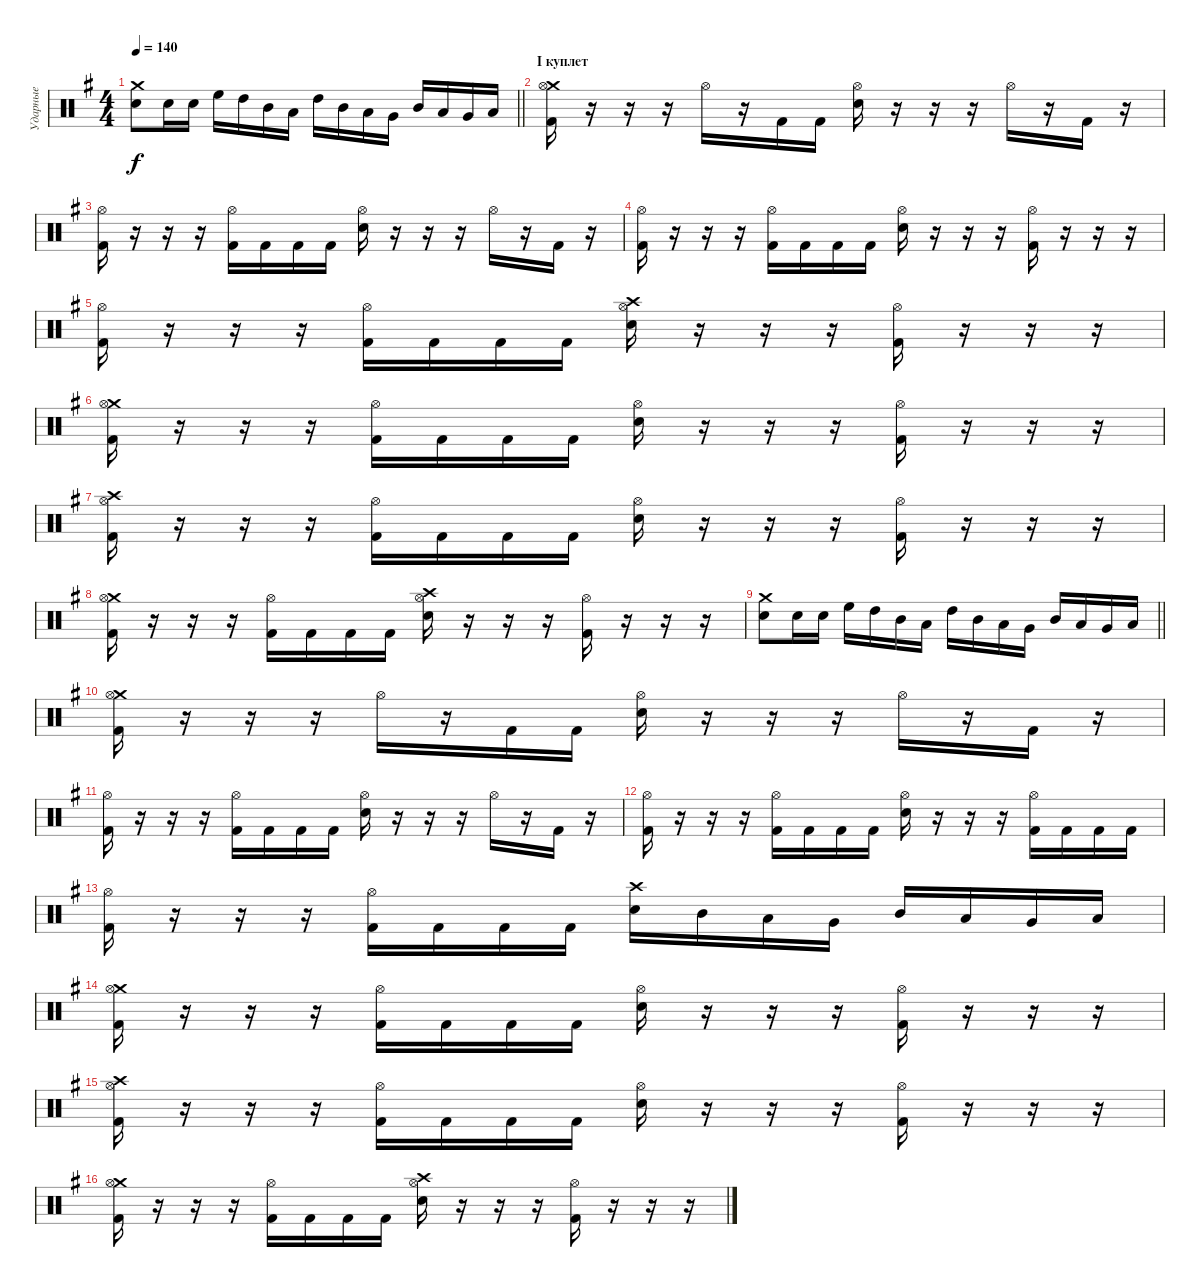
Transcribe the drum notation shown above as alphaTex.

\track ("Ударные" "Ударные") {instrument percussion}
\staff {score}
\articulation defaults
\ts (4 4)
\tempo 140
\clef neutral
\barLineRight lightlight
\ks eminor
("Crash medium (hit)" "Electric Snare (hit)").8{dy f} "Electric Snare (hit)".16 "Electric Snare (hit)".16 "High Floor Tom (hit)".16 "High Tom (hit)".16 "Mid Tom (hit)".16 "Low Tom (hit)".16 "High Tom (hit)".16 "Mid Tom (hit)".16 "Low Tom (hit)".16 "Very Low Tom (hit)".16 "Mid Tom (hit)".16 "Low Tom (hit)".16 "Very Low Tom (hit)".16 "Low Floor Tom (hit)".16 |
\section ("" "I куплет")
("Crash medium (hit)" "Kick (hit) 2" "Hi-Hat (open)").16 r.16 r.16 r.16 "Hi-Hat (open)".16 r.16 "Kick (hit) 2".16 "Kick (hit) 2".16 ("Electric Snare (hit)" "Hi-Hat (open)").16 r.16 r.16 r.16 "Hi-Hat (open)".16 r.16 "Kick (hit) 2".16 r.16 |
("Kick (hit) 2" "Hi-Hat (open)").16 r.16 r.16 r.16 ("Kick (hit) 2" "Hi-Hat (open)").16 "Kick (hit) 2".16 "Kick (hit) 2".16 "Kick (hit) 2".16 ("Electric Snare (hit)" "Hi-Hat (open)").16 r.16 r.16 r.16 "Hi-Hat (open)".16 r.16 "Kick (hit) 2".16 r.16 |
("Kick (hit) 2" "Hi-Hat (open)").16 r.16 r.16 r.16 ("Kick (hit) 2" "Hi-Hat (open)").16 "Kick (hit) 2".16 "Kick (hit) 2".16 "Kick (hit) 2".16 ("Electric Snare (hit)" "Hi-Hat (open)").16 r.16 r.16 r.16 ("Kick (hit) 2" "Hi-Hat (open)").16 r.16 r.16 r.16 |
("Kick (hit) 2" "Hi-Hat (open)").16 r.16 r.16 r.16 ("Kick (hit) 2" "Hi-Hat (open)").16 "Kick (hit) 2".16 "Kick (hit) 2".16 "Kick (hit) 2".16 ("Crash high (hit)" "Electric Snare (hit)" "Hi-Hat (open)").16 r.16 r.16 r.16 ("Kick (hit) 2" "Hi-Hat (open)").16 r.16 r.16 r.16 |
("Crash medium (hit)" "Kick (hit) 2" "Hi-Hat (open)").16 r.16 r.16 r.16 ("Kick (hit) 2" "Hi-Hat (open)").16 "Kick (hit) 2".16 "Kick (hit) 2".16 "Kick (hit) 2".16 ("Electric Snare (hit)" "Hi-Hat (open)").16 r.16 r.16 r.16 ("Kick (hit) 2" "Hi-Hat (open)").16 r.16 r.16 r.16 |
("Crash high (hit)" "Kick (hit) 2" "Hi-Hat (open)").16 r.16 r.16 r.16 ("Kick (hit) 2" "Hi-Hat (open)").16 "Kick (hit) 2".16 "Kick (hit) 2".16 "Kick (hit) 2".16 ("Electric Snare (hit)" "Hi-Hat (open)").16 r.16 r.16 r.16 ("Kick (hit) 2" "Hi-Hat (open)").16 r.16 r.16 r.16 |
("Crash medium (hit)" "Kick (hit) 2" "Hi-Hat (open)").16 r.16 r.16 r.16 ("Kick (hit) 2" "Hi-Hat (open)").16 "Kick (hit) 2".16 "Kick (hit) 2".16 "Kick (hit) 2".16 ("Crash high (hit)" "Electric Snare (hit)" "Hi-Hat (open)").16 r.16 r.16 r.16 ("Kick (hit) 2" "Hi-Hat (open)").16 r.16 r.16 r.16 |
\barLineRight lightlight
("Crash medium (hit)" "Electric Snare (hit)").8 "Electric Snare (hit)".16 "Electric Snare (hit)".16 "High Floor Tom (hit)".16 "High Tom (hit)".16 "Mid Tom (hit)".16 "Low Tom (hit)".16 "High Tom (hit)".16 "Mid Tom (hit)".16 "Low Tom (hit)".16 "Very Low Tom (hit)".16 "Mid Tom (hit)".16 "Low Tom (hit)".16 "Very Low Tom (hit)".16 "Low Floor Tom (hit)".16 |
("Crash medium (hit)" "Kick (hit) 2" "Hi-Hat (open)").16 r.16 r.16 r.16 "Hi-Hat (open)".16 r.16 "Kick (hit) 2".16 "Kick (hit) 2".16 ("Electric Snare (hit)" "Hi-Hat (open)").16 r.16 r.16 r.16 "Hi-Hat (open)".16 r.16 "Kick (hit) 2".16 r.16 |
("Kick (hit) 2" "Hi-Hat (open)").16 r.16 r.16 r.16 ("Kick (hit) 2" "Hi-Hat (open)").16 "Kick (hit) 2".16 "Kick (hit) 2".16 "Kick (hit) 2".16 ("Electric Snare (hit)" "Hi-Hat (open)").16 r.16 r.16 r.16 "Hi-Hat (open)".16 r.16 "Kick (hit) 2".16 r.16 |
("Kick (hit) 2" "Hi-Hat (open)").16 r.16 r.16 r.16 ("Kick (hit) 2" "Hi-Hat (open)").16 "Kick (hit) 2".16 "Kick (hit) 2".16 "Kick (hit) 2".16 ("Electric Snare (hit)" "Hi-Hat (open)").16 r.16 r.16 r.16 ("Kick (hit) 2" "Hi-Hat (open)").16 "Kick (hit) 2".16 "Kick (hit) 2".16 "Kick (hit) 2".16 |
("Kick (hit) 2" "Hi-Hat (open)").16 r.16 r.16 r.16 ("Kick (hit) 2" "Hi-Hat (open)").16 "Kick (hit) 2".16 "Kick (hit) 2".16 "Kick (hit) 2".16 ("Crash high (hit)" "Electric Snare (hit)").16 "Mid Tom (hit)".16 "Low Tom (hit)".16 "Very Low Tom (hit)".16 "Mid Tom (hit)".16 "Low Tom (hit)".16 "Very Low Tom (hit)".16 "Low Floor Tom (hit)".16 |
("Crash medium (hit)" "Kick (hit) 2" "Hi-Hat (open)").16 r.16 r.16 r.16 ("Kick (hit) 2" "Hi-Hat (open)").16 "Kick (hit) 2".16 "Kick (hit) 2".16 "Kick (hit) 2".16 ("Electric Snare (hit)" "Hi-Hat (open)").16 r.16 r.16 r.16 ("Kick (hit) 2" "Hi-Hat (open)").16 r.16 r.16 r.16 |
("Crash high (hit)" "Kick (hit) 2" "Hi-Hat (open)").16 r.16 r.16 r.16 ("Kick (hit) 2" "Hi-Hat (open)").16 "Kick (hit) 2".16 "Kick (hit) 2".16 "Kick (hit) 2".16 ("Electric Snare (hit)" "Hi-Hat (open)").16 r.16 r.16 r.16 ("Kick (hit) 2" "Hi-Hat (open)").16 r.16 r.16 r.16 |
("Crash medium (hit)" "Kick (hit) 2" "Hi-Hat (open)").16 r.16 r.16 r.16 ("Kick (hit) 2" "Hi-Hat (open)").16 "Kick (hit) 2".16 "Kick (hit) 2".16 "Kick (hit) 2".16 ("Crash high (hit)" "Electric Snare (hit)" "Hi-Hat (open)").16 r.16 r.16 r.16 ("Kick (hit) 2" "Hi-Hat (open)").16 r.16 r.16 r.16
